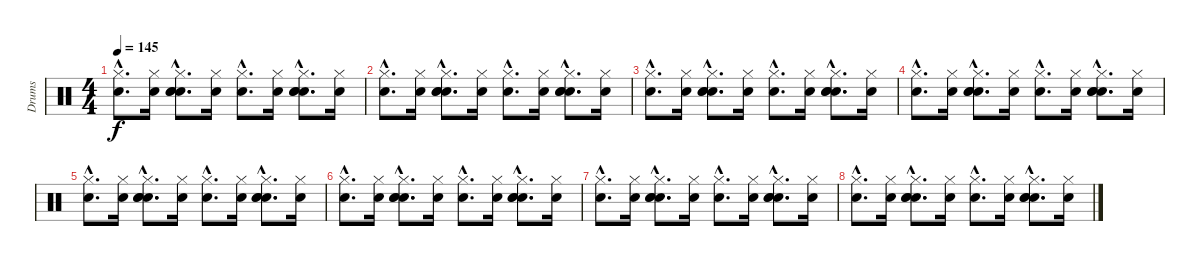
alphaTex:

\track ("Drums" "Drums") {instrument percussion}
\staff {score}
\articulation defaults
\ts (4 4)
\tempo 145
\clef neutral
\ks c
("Hi-Hat (closed)"{hac} "Snare (hit) 2"{hac}).8{d dy f} ("Hi-Hat (closed)" "Snare (hit) 2").16 ("Hi-Hat (closed)"{hac} "Snare (hit) 2"{hac} "Electric Snare (hit)"{hac} "Electric Snare (hit)"{hac}).8{d} ("Hi-Hat (closed)" "Snare (hit) 2").16 ("Hi-Hat (closed)"{hac} "Snare (hit) 2"{hac}).8{d} ("Hi-Hat (closed)" "Snare (hit) 2").16 ("Hi-Hat (closed)"{hac} "Snare (hit) 2"{hac} "Electric Snare (hit)"{hac} "Electric Snare (hit)"{hac}).8{d} ("Hi-Hat (closed)" "Snare (hit) 2").16 |
("Hi-Hat (closed)"{hac} "Snare (hit) 2"{hac}).8{d} ("Hi-Hat (closed)" "Snare (hit) 2").16 ("Hi-Hat (closed)"{hac} "Snare (hit) 2"{hac} "Electric Snare (hit)"{hac} "Electric Snare (hit)"{hac}).8{d} ("Hi-Hat (closed)" "Snare (hit) 2").16 ("Hi-Hat (closed)"{hac} "Snare (hit) 2"{hac}).8{d} ("Hi-Hat (closed)" "Snare (hit) 2").16 ("Hi-Hat (closed)"{hac} "Snare (hit) 2"{hac} "Electric Snare (hit)"{hac} "Electric Snare (hit)"{hac}).8{d} ("Hi-Hat (closed)" "Snare (hit) 2").16 |
("Hi-Hat (closed)"{hac} "Snare (hit) 2"{hac}).8{d} ("Hi-Hat (closed)" "Snare (hit) 2").16 ("Hi-Hat (closed)"{hac} "Snare (hit) 2"{hac} "Electric Snare (hit)"{hac} "Electric Snare (hit)"{hac}).8{d} ("Hi-Hat (closed)" "Snare (hit) 2").16 ("Hi-Hat (closed)"{hac} "Snare (hit) 2"{hac}).8{d} ("Hi-Hat (closed)" "Snare (hit) 2").16 ("Hi-Hat (closed)"{hac} "Snare (hit) 2"{hac} "Electric Snare (hit)"{hac} "Electric Snare (hit)"{hac}).8{d} ("Hi-Hat (closed)" "Snare (hit) 2").16 |
("Hi-Hat (closed)"{hac} "Snare (hit) 2"{hac}).8{d} ("Hi-Hat (closed)" "Snare (hit) 2").16 ("Hi-Hat (closed)"{hac} "Snare (hit) 2"{hac} "Electric Snare (hit)"{hac} "Electric Snare (hit)"{hac}).8{d} ("Hi-Hat (closed)" "Snare (hit) 2").16 ("Hi-Hat (closed)"{hac} "Snare (hit) 2"{hac}).8{d} ("Hi-Hat (closed)" "Snare (hit) 2").16 ("Hi-Hat (closed)"{hac} "Snare (hit) 2"{hac} "Electric Snare (hit)"{hac} "Electric Snare (hit)"{hac}).8{d} ("Hi-Hat (closed)" "Snare (hit) 2").16 |
("Hi-Hat (closed)"{hac} "Snare (hit) 2"{hac}).8{d} ("Hi-Hat (closed)" "Snare (hit) 2").16 ("Hi-Hat (closed)"{hac} "Snare (hit) 2"{hac} "Electric Snare (hit)"{hac} "Electric Snare (hit)"{hac}).8{d} ("Hi-Hat (closed)" "Snare (hit) 2").16 ("Hi-Hat (closed)"{hac} "Snare (hit) 2"{hac}).8{d} ("Hi-Hat (closed)" "Snare (hit) 2").16 ("Hi-Hat (closed)"{hac} "Snare (hit) 2"{hac} "Electric Snare (hit)"{hac} "Electric Snare (hit)"{hac}).8{d} ("Hi-Hat (closed)" "Snare (hit) 2").16 |
("Hi-Hat (closed)"{hac} "Snare (hit) 2"{hac}).8{d} ("Hi-Hat (closed)" "Snare (hit) 2").16 ("Hi-Hat (closed)"{hac} "Snare (hit) 2"{hac} "Electric Snare (hit)"{hac} "Electric Snare (hit)"{hac}).8{d} ("Hi-Hat (closed)" "Snare (hit) 2").16 ("Hi-Hat (closed)"{hac} "Snare (hit) 2"{hac}).8{d} ("Hi-Hat (closed)" "Snare (hit) 2").16 ("Hi-Hat (closed)"{hac} "Snare (hit) 2"{hac} "Electric Snare (hit)"{hac} "Electric Snare (hit)"{hac}).8{d} ("Hi-Hat (closed)" "Snare (hit) 2").16 |
("Hi-Hat (closed)"{hac} "Snare (hit) 2"{hac}).8{d} ("Hi-Hat (closed)" "Snare (hit) 2").16 ("Hi-Hat (closed)"{hac} "Snare (hit) 2"{hac} "Electric Snare (hit)"{hac} "Electric Snare (hit)"{hac}).8{d} ("Hi-Hat (closed)" "Snare (hit) 2").16 ("Hi-Hat (closed)"{hac} "Snare (hit) 2"{hac}).8{d} ("Hi-Hat (closed)" "Snare (hit) 2").16 ("Hi-Hat (closed)"{hac} "Snare (hit) 2"{hac} "Electric Snare (hit)"{hac} "Electric Snare (hit)"{hac}).8{d} ("Hi-Hat (closed)" "Snare (hit) 2").16 |
("Hi-Hat (closed)"{hac} "Snare (hit) 2"{hac}).8{d} ("Hi-Hat (closed)" "Snare (hit) 2").16 ("Hi-Hat (closed)"{hac} "Snare (hit) 2"{hac} "Electric Snare (hit)"{hac} "Electric Snare (hit)"{hac}).8{d} ("Hi-Hat (closed)" "Snare (hit) 2").16 ("Hi-Hat (closed)"{hac} "Snare (hit) 2"{hac}).8{d} ("Hi-Hat (closed)" "Snare (hit) 2").16 ("Hi-Hat (closed)"{hac} "Snare (hit) 2"{hac} "Electric Snare (hit)"{hac} "Electric Snare (hit)"{hac}).8{d} ("Hi-Hat (closed)" "Snare (hit) 2").16
